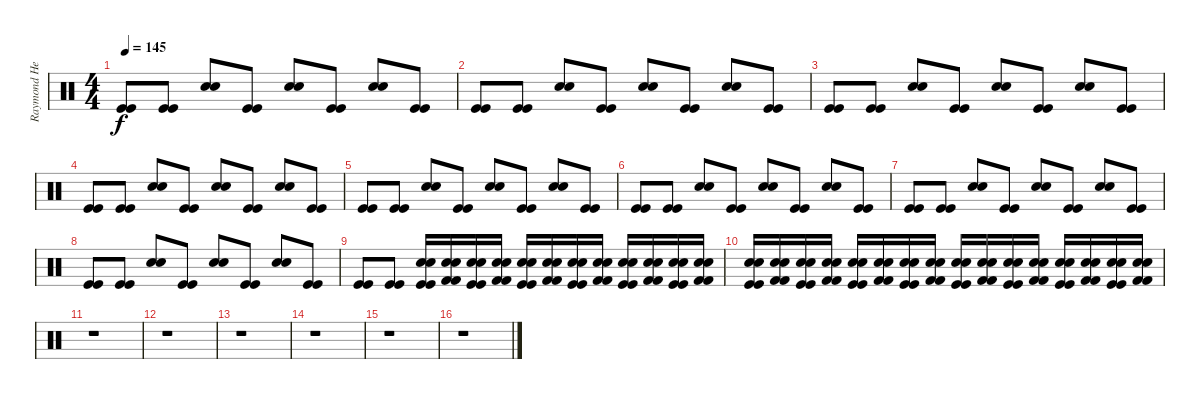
\track ("Raymond Herrera" "Raymond He") {instrument percussion}
\staff {score}
\articulation defaults
\ts (4 4)
\tempo 145
\clef neutral
\ks c
("Kick (hit)" "Kick (hit)").8{dy f} ("Kick (hit)" "Kick (hit)").8 ("Electric Snare (hit)" "Electric Snare (hit)").8 ("Kick (hit)" "Kick (hit)").8 ("Electric Snare (hit)" "Electric Snare (hit)").8 ("Kick (hit)" "Kick (hit)").8 ("Electric Snare (hit)" "Electric Snare (hit)").8 ("Kick (hit)" "Kick (hit)").8 |
("Kick (hit)" "Kick (hit)").8 ("Kick (hit)" "Kick (hit)").8 ("Electric Snare (hit)" "Electric Snare (hit)").8 ("Kick (hit)" "Kick (hit)").8 ("Electric Snare (hit)" "Electric Snare (hit)").8 ("Kick (hit)" "Kick (hit)").8 ("Electric Snare (hit)" "Electric Snare (hit)").8 ("Kick (hit)" "Kick (hit)").8 |
("Kick (hit)" "Kick (hit)").8 ("Kick (hit)" "Kick (hit)").8 ("Electric Snare (hit)" "Electric Snare (hit)").8 ("Kick (hit)" "Kick (hit)").8 ("Electric Snare (hit)" "Electric Snare (hit)").8 ("Kick (hit)" "Kick (hit)").8 ("Electric Snare (hit)" "Electric Snare (hit)").8 ("Kick (hit)" "Kick (hit)").8 |
("Kick (hit)" "Kick (hit)").8 ("Kick (hit)" "Kick (hit)").8 ("Electric Snare (hit)" "Electric Snare (hit)").8 ("Kick (hit)" "Kick (hit)").8 ("Electric Snare (hit)" "Electric Snare (hit)").8 ("Kick (hit)" "Kick (hit)").8 ("Electric Snare (hit)" "Electric Snare (hit)").8 ("Kick (hit)" "Kick (hit)").8 |
("Kick (hit)" "Kick (hit)").8 ("Kick (hit)" "Kick (hit)").8 ("Electric Snare (hit)" "Electric Snare (hit)").8 ("Kick (hit)" "Kick (hit)").8 ("Electric Snare (hit)" "Electric Snare (hit)").8 ("Kick (hit)" "Kick (hit)").8 ("Electric Snare (hit)" "Electric Snare (hit)").8 ("Kick (hit)" "Kick (hit)").8 |
("Kick (hit)" "Kick (hit)").8 ("Kick (hit)" "Kick (hit)").8 ("Electric Snare (hit)" "Electric Snare (hit)").8 ("Kick (hit)" "Kick (hit)").8 ("Electric Snare (hit)" "Electric Snare (hit)").8 ("Kick (hit)" "Kick (hit)").8 ("Electric Snare (hit)" "Electric Snare (hit)").8 ("Kick (hit)" "Kick (hit)").8 |
("Kick (hit)" "Kick (hit)").8 ("Kick (hit)" "Kick (hit)").8 ("Electric Snare (hit)" "Electric Snare (hit)").8 ("Kick (hit)" "Kick (hit)").8 ("Electric Snare (hit)" "Electric Snare (hit)").8 ("Kick (hit)" "Kick (hit)").8 ("Electric Snare (hit)" "Electric Snare (hit)").8 ("Kick (hit)" "Kick (hit)").8 |
("Kick (hit)" "Kick (hit)").8 ("Kick (hit)" "Kick (hit)").8 ("Electric Snare (hit)" "Electric Snare (hit)").8 ("Kick (hit)" "Kick (hit)").8 ("Electric Snare (hit)" "Electric Snare (hit)").8 ("Kick (hit)" "Kick (hit)").8 ("Electric Snare (hit)" "Electric Snare (hit)").8 ("Kick (hit)" "Kick (hit)").8 |
("Kick (hit)" "Kick (hit)").8 ("Kick (hit)" "Kick (hit)").8 ("Electric Snare (hit)" "Electric Snare (hit)" "Kick (hit)" "Kick (hit)").16 ("Electric Snare (hit)" "Electric Snare (hit)" "Kick (hit) 2" "Kick (hit) 2").16 ("Electric Snare (hit)" "Electric Snare (hit)" "Kick (hit)" "Kick (hit)").16 ("Electric Snare (hit)" "Electric Snare (hit)" "Kick (hit) 2" "Kick (hit) 2").16 ("Electric Snare (hit)" "Electric Snare (hit)" "Kick (hit)" "Kick (hit)").16 ("Electric Snare (hit)" "Electric Snare (hit)" "Kick (hit) 2" "Kick (hit) 2").16 ("Electric Snare (hit)" "Electric Snare (hit)" "Kick (hit)" "Kick (hit)").16 ("Electric Snare (hit)" "Electric Snare (hit)" "Kick (hit) 2" "Kick (hit) 2").16 ("Electric Snare (hit)" "Electric Snare (hit)" "Kick (hit)" "Kick (hit)").16 ("Electric Snare (hit)" "Electric Snare (hit)" "Kick (hit) 2" "Kick (hit) 2").16 ("Electric Snare (hit)" "Electric Snare (hit)" "Kick (hit)" "Kick (hit)").16 ("Electric Snare (hit)" "Electric Snare (hit)" "Kick (hit) 2" "Kick (hit) 2").16 |
("Electric Snare (hit)" "Electric Snare (hit)" "Kick (hit)" "Kick (hit)").16 ("Electric Snare (hit)" "Electric Snare (hit)" "Kick (hit) 2" "Kick (hit) 2").16 ("Electric Snare (hit)" "Electric Snare (hit)" "Kick (hit)" "Kick (hit)").16 ("Electric Snare (hit)" "Electric Snare (hit)" "Kick (hit) 2" "Kick (hit) 2").16 ("Electric Snare (hit)" "Electric Snare (hit)" "Kick (hit)" "Kick (hit)").16 ("Electric Snare (hit)" "Electric Snare (hit)" "Kick (hit) 2" "Kick (hit) 2").16 ("Electric Snare (hit)" "Electric Snare (hit)" "Kick (hit)" "Kick (hit)").16 ("Electric Snare (hit)" "Electric Snare (hit)" "Kick (hit) 2" "Kick (hit) 2").16 ("Electric Snare (hit)" "Electric Snare (hit)" "Kick (hit)" "Kick (hit)").16 ("Electric Snare (hit)" "Electric Snare (hit)" "Kick (hit) 2" "Kick (hit) 2").16 ("Electric Snare (hit)" "Electric Snare (hit)" "Kick (hit)" "Kick (hit)").16 ("Electric Snare (hit)" "Electric Snare (hit)" "Kick (hit) 2" "Kick (hit) 2").16 ("Electric Snare (hit)" "Electric Snare (hit)" "Kick (hit)" "Kick (hit)").16 ("Electric Snare (hit)" "Electric Snare (hit)" "Kick (hit) 2" "Kick (hit) 2").16 ("Electric Snare (hit)" "Electric Snare (hit)" "Kick (hit)" "Kick (hit)").16 ("Electric Snare (hit)" "Electric Snare (hit)" "Kick (hit) 2" "Kick (hit) 2").16 |
r.1 |
r.1 |
r.1 |
r.1 |
r.1 |
r.1
